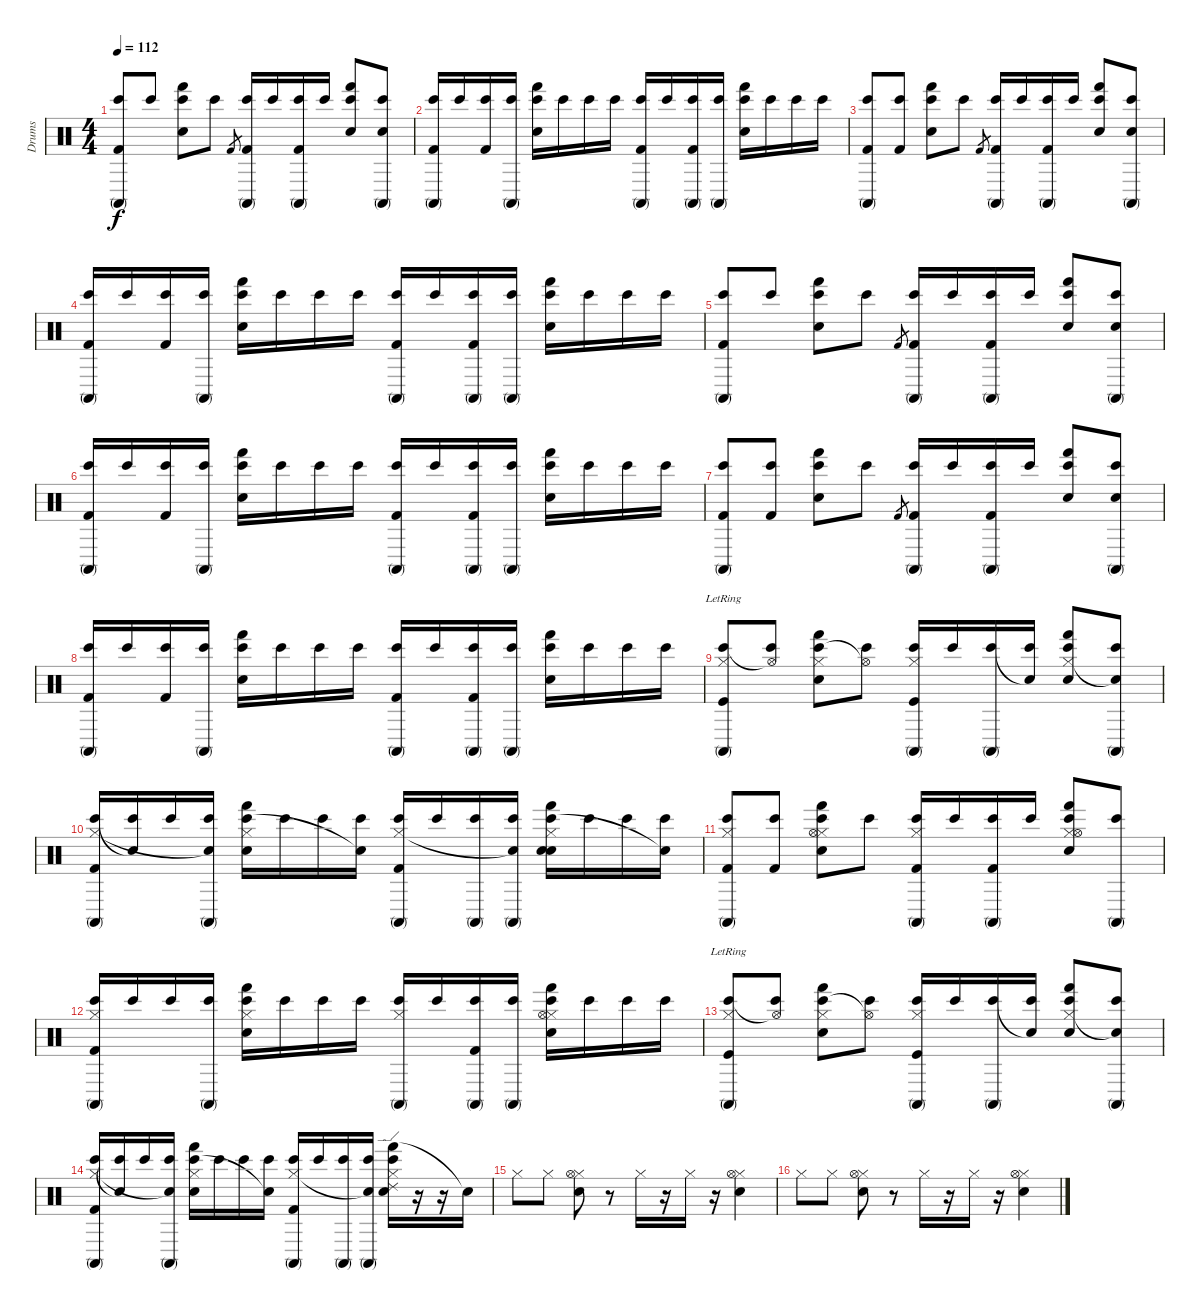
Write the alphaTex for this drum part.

\track ("Drums" "Drums") {instrument percussion}
\staff {score}
\articulation defaults
\ts (4 4)
\tempo 112
\clef neutral
\ks c
("Conga high (mute)" "Bongo High (hit)" "Kick (hit) 2").8{dy f} "Bongo High (hit)".8 ("Hand (hit)" "Bongo High (hit)" "Snare (hit) 2").8 "Bongo High (hit)".8 "Kick (hit) 2".8{gr} ("Conga high (mute)" "Bongo High (hit)" "Kick (hit) 2").16 "Bongo High (hit)".16 ("Conga high (mute)" "Bongo High (hit)" "Kick (hit) 2").16 "Bongo High (hit)".16 ("Hand (hit)" "Bongo High (hit)" "Snare (hit) 2").8 ("Conga high (mute)" "Bongo High (hit)" "Snare (hit) 2").8 |
("Conga high (mute)" "Bongo High (hit)" "Kick (hit) 2").16 "Bongo High (hit)".16 ("Bongo High (hit)" "Kick (hit) 2").16 ("Conga high (mute)" "Bongo High (hit)").16 ("Hand (hit)" "Bongo High (hit)" "Snare (hit) 2").16 "Bongo High (hit)".16 "Bongo High (hit)".16 "Bongo High (hit)".16 ("Conga high (mute)" "Bongo High (hit)" "Kick (hit) 2").16 "Bongo High (hit)".16 ("Conga high (mute)" "Bongo High (hit)" "Kick (hit) 2").16 ("Conga high (mute)" "Bongo High (hit)").16 ("Hand (hit)" "Bongo High (hit)" "Snare (hit) 2").16 "Bongo High (hit)".16 "Bongo High (hit)".16 "Bongo High (hit)".16 |
("Conga high (mute)" "Bongo High (hit)" "Kick (hit) 2").8 ("Bongo High (hit)" "Kick (hit) 2").8 ("Hand (hit)" "Bongo High (hit)" "Snare (hit) 2").8 "Bongo High (hit)".8 "Kick (hit) 2".8{gr} ("Conga high (mute)" "Bongo High (hit)" "Kick (hit) 2").16 "Bongo High (hit)".16 ("Conga high (mute)" "Bongo High (hit)" "Kick (hit) 2").16 "Bongo High (hit)".16 ("Hand (hit)" "Bongo High (hit)" "Snare (hit) 2").8 ("Conga high (mute)" "Bongo High (hit)" "Snare (hit) 2").8 |
("Conga high (mute)" "Bongo High (hit)" "Kick (hit) 2").16 "Bongo High (hit)".16 ("Bongo High (hit)" "Kick (hit) 2").16 ("Conga high (mute)" "Bongo High (hit)").16 ("Hand (hit)" "Bongo High (hit)" "Snare (hit) 2").16 "Bongo High (hit)".16 "Bongo High (hit)".16 "Bongo High (hit)".16 ("Conga high (mute)" "Bongo High (hit)" "Kick (hit) 2").16 "Bongo High (hit)".16 ("Conga high (mute)" "Bongo High (hit)" "Kick (hit) 2").16 ("Conga high (mute)" "Bongo High (hit)").16 ("Hand (hit)" "Bongo High (hit)" "Snare (hit) 2").16 "Bongo High (hit)".16 "Bongo High (hit)".16 "Bongo High (hit)".16 |
("Conga high (mute)" "Bongo High (hit)" "Kick (hit) 2").8 "Bongo High (hit)".8 ("Hand (hit)" "Bongo High (hit)" "Snare (hit) 2").8 "Bongo High (hit)".8 "Kick (hit) 2".8{gr} ("Conga high (mute)" "Bongo High (hit)" "Kick (hit) 2").16 "Bongo High (hit)".16 ("Conga high (mute)" "Bongo High (hit)" "Kick (hit) 2").16 "Bongo High (hit)".16 ("Hand (hit)" "Bongo High (hit)" "Snare (hit) 2").8 ("Conga high (mute)" "Bongo High (hit)" "Snare (hit) 2").8 |
("Conga high (mute)" "Bongo High (hit)" "Kick (hit) 2").16 "Bongo High (hit)".16 ("Bongo High (hit)" "Kick (hit) 2").16 ("Conga high (mute)" "Bongo High (hit)").16 ("Hand (hit)" "Bongo High (hit)" "Snare (hit) 2").16 "Bongo High (hit)".16 "Bongo High (hit)".16 "Bongo High (hit)".16 ("Conga high (mute)" "Bongo High (hit)" "Kick (hit) 2").16 "Bongo High (hit)".16 ("Conga high (mute)" "Bongo High (hit)" "Kick (hit) 2").16 ("Conga high (mute)" "Bongo High (hit)").16 ("Hand (hit)" "Bongo High (hit)" "Snare (hit) 2").16 "Bongo High (hit)".16 "Bongo High (hit)".16 "Bongo High (hit)".16 |
("Conga high (mute)" "Bongo High (hit)" "Kick (hit) 2").8 ("Bongo High (hit)" "Kick (hit) 2").8 ("Hand (hit)" "Bongo High (hit)" "Snare (hit) 2").8 "Bongo High (hit)".8 "Kick (hit) 2".8{gr} ("Conga high (mute)" "Bongo High (hit)" "Kick (hit) 2").16 "Bongo High (hit)".16 ("Conga high (mute)" "Bongo High (hit)" "Kick (hit) 2").16 "Bongo High (hit)".16 ("Hand (hit)" "Bongo High (hit)" "Snare (hit) 2").8 ("Conga high (mute)" "Bongo High (hit)" "Snare (hit) 2").8 |
("Conga high (mute)" "Bongo High (hit)" "Kick (hit) 2").16 "Bongo High (hit)".16 ("Bongo High (hit)" "Kick (hit) 2").16 ("Conga high (mute)" "Bongo High (hit)").16 ("Hand (hit)" "Bongo High (hit)" "Snare (hit) 2").16 "Bongo High (hit)".16 "Bongo High (hit)".16 "Bongo High (hit)".16 ("Conga high (mute)" "Bongo High (hit)" "Kick (hit) 2").16 "Bongo High (hit)".16 ("Conga high (mute)" "Bongo High (hit)" "Kick (hit) 2").16 ("Conga high (mute)" "Bongo High (hit)").16 ("Hand (hit)" "Bongo High (hit)" "Snare (hit) 2").16 "Bongo High (hit)".16 "Bongo High (hit)".16 "Bongo High (hit)".16 |
("Conga high (mute)" "Bongo High (hit)" "Hi-Hat (closed)"{lr} "Kick (hit)").8 ("Bongo High (hit)" "Hi-Hat (open)"{t}).8 ("Hand (hit)" "Bongo High (hit)" "Hi-Hat (closed)" "Snare (hit) 2").8 ("Bongo High (hit)" "Hi-Hat (open)"{t}).8 ("Conga high (mute)" "Bongo High (hit)" "Hi-Hat (closed)" "Kick (hit)").16 "Bongo High (hit)".16 ("Conga high (mute)" "Bongo High (hit)").16 ("Bongo High (hit)" "Snare (hit)"{t}).16 ("Hand (hit)" "Bongo High (hit)" "Hi-Hat (closed)" "Snare (hit) 2").8 ("Conga high (mute)" "Bongo High (hit)" "Snare (hit)"{t}).8 |
("Conga high (mute)" "Bongo High (hit)" "Hi-Hat (closed)" "Kick (hit) 2").16 ("Bongo High (hit)" "Snare (hit)"{t}).16 "Bongo High (hit)".16 ("Conga high (mute)" "Bongo High (hit)" "Snare (hit)"{t}).16 ("Hand (hit)" "Bongo High (hit)" "Hi-Hat (closed)" "Snare (hit) 2").16 "Bongo High (hit)".16 "Bongo High (hit)".16 ("Bongo High (hit)" "Snare (hit)"{t}).16 ("Conga high (mute)" "Bongo High (hit)" "Hi-Hat (closed)" "Kick (hit) 2").16 "Bongo High (hit)".16 ("Conga high (mute)" "Bongo High (hit)").16 ("Conga high (mute)" "Bongo High (hit)" "Snare (hit)"{t}).16 ("Hand (hit)" "Bongo High (hit)" "Hi-Hat (closed)" "Electric Snare (hit)" "Snare (hit) 2").16 "Bongo High (hit)".16 "Bongo High (hit)".16 ("Bongo High (hit)" "Snare (hit)"{t}).16 |
("Conga high (mute)" "Bongo High (hit)" "Hi-Hat (closed)" "Kick (hit) 2").8 ("Bongo High (hit)" "Kick (hit) 2").8 ("Hand (hit)" "Bongo High (hit)" "Hi-Hat (closed)" "Hi-Hat (open)" "Snare (hit) 2").8 "Bongo High (hit)".8 ("Conga high (mute)" "Bongo High (hit)" "Hi-Hat (closed)" "Kick (hit) 2").16 "Bongo High (hit)".16 ("Conga high (mute)" "Bongo High (hit)" "Kick (hit) 2").16 "Bongo High (hit)".16 ("Hand (hit)" "Bongo High (hit)" "Hi-Hat (closed)" "Hi-Hat (open)" "Snare (hit) 2").8 ("Conga high (mute)" "Bongo High (hit)").8 |
("Conga high (mute)" "Bongo High (hit)" "Hi-Hat (closed)" "Kick (hit) 2").16 "Bongo High (hit)".16 "Bongo High (hit)".16 ("Conga high (mute)" "Bongo High (hit)").16 ("Hand (hit)" "Bongo High (hit)" "Hi-Hat (closed)" "Snare (hit) 2").16 "Bongo High (hit)".16 "Bongo High (hit)".16 "Bongo High (hit)".16 ("Conga high (mute)" "Bongo High (hit)" "Hi-Hat (closed)").16 "Bongo High (hit)".16 ("Conga high (mute)" "Bongo High (hit)" "Kick (hit) 2").16 ("Conga high (mute)" "Bongo High (hit)").16 ("Hand (hit)" "Bongo High (hit)" "Hi-Hat (closed)" "Hi-Hat (open)" "Snare (hit) 2").16 "Bongo High (hit)".16 "Bongo High (hit)".16 "Bongo High (hit)".16 |
("Conga high (mute)" "Bongo High (hit)" "Hi-Hat (closed)"{lr} "Kick (hit)").8 ("Bongo High (hit)" "Hi-Hat (open)"{t}).8 ("Hand (hit)" "Bongo High (hit)" "Hi-Hat (closed)" "Snare (hit) 2").8 ("Bongo High (hit)" "Hi-Hat (open)"{t}).8 ("Conga high (mute)" "Bongo High (hit)" "Hi-Hat (closed)" "Kick (hit)").16 "Bongo High (hit)".16 ("Conga high (mute)" "Bongo High (hit)").16 ("Bongo High (hit)" "Snare (hit)"{t}).16 ("Hand (hit)" "Bongo High (hit)" "Hi-Hat (closed)" "Snare (hit) 2").8 ("Conga high (mute)" "Bongo High (hit)" "Snare (hit)"{t}).8 |
("Conga high (mute)" "Bongo High (hit)" "Hi-Hat (closed)" "Kick (hit) 2").16 ("Bongo High (hit)" "Snare (hit)"{t}).16 "Bongo High (hit)".16 ("Conga high (mute)" "Bongo High (hit)" "Snare (hit)"{t}).16 ("Hand (hit)" "Bongo High (hit)" "Hi-Hat (closed)" "Snare (hit) 2").16 "Bongo High (hit)".16 "Bongo High (hit)".16 ("Bongo High (hit)" "Snare (hit)"{t}).16 ("Conga high (mute)" "Bongo High (hit)" "Hi-Hat (closed)" "Kick (hit) 2").16 "Bongo High (hit)".16 ("Conga high (mute)" "Bongo High (hit)").16 ("Conga high (mute)" "Bongo High (hit)" "Snare (hit)"{t}).16 ("Hand (hit)" "Bongo High (hit)" "Hi-Hat (closed)" "Ride (edge) 2" "Snare (hit) 2").16 r.16 r.16 "Snare (hit)"{t}.16 |
"Hi-Hat (closed)".8 "Hi-Hat (closed)".8 ("Hi-Hat (closed)" "Hi-Hat (open)" "Electric Snare (hit)").8 r.8 "Hi-Hat (closed)".16 r.16 "Hi-Hat (closed)".16 r.16 ("Hi-Hat (closed)" "Hi-Hat (open)" "Electric Snare (hit)").4 |
"Hi-Hat (closed)".8 "Hi-Hat (closed)".8 ("Hi-Hat (closed)" "Hi-Hat (open)" "Electric Snare (hit)").8 r.8 "Hi-Hat (closed)".16 r.16 "Hi-Hat (closed)".16 r.16 ("Hi-Hat (closed)" "Hi-Hat (open)" "Electric Snare (hit)").4
